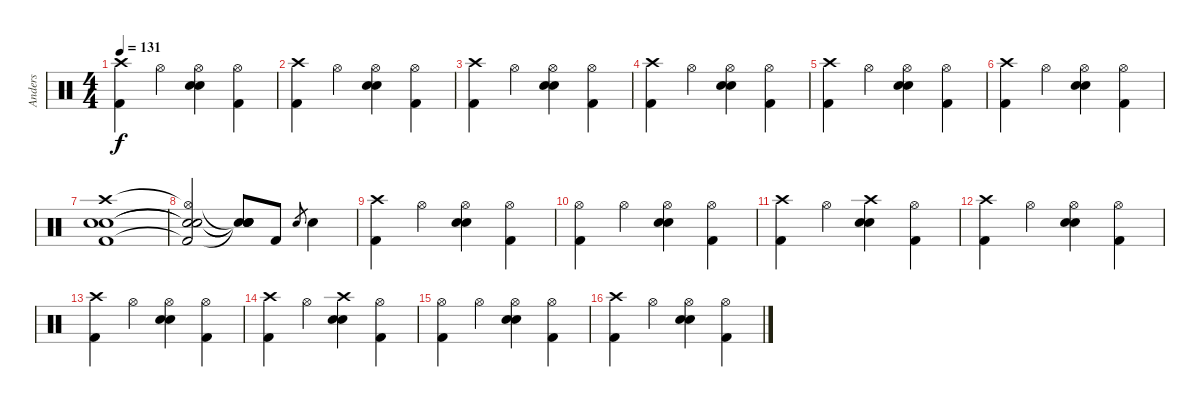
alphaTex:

\track ("Anders" "Anders") {instrument percussion}
\staff {score}
\articulation defaults
\ts (4 4)
\tempo 131
\clef neutral
\ks c
("Crash high (hit)" "Kick (hit) 2").4{dy f} "Hi-Hat (open)".4 ("Hi-Hat (open)" "Electric Snare (hit)" "Electric Snare (hit)").4 ("Hi-Hat (open)" "Kick (hit) 2").4 |
("Crash high (hit)" "Kick (hit) 2").4 "Hi-Hat (open)".4 ("Hi-Hat (open)" "Electric Snare (hit)" "Electric Snare (hit)").4 ("Hi-Hat (open)" "Kick (hit) 2").4 |
("Crash high (hit)" "Kick (hit) 2").4 "Hi-Hat (open)".4 ("Hi-Hat (open)" "Electric Snare (hit)" "Electric Snare (hit)").4 ("Hi-Hat (open)" "Kick (hit) 2").4 |
("Crash high (hit)" "Kick (hit) 2").4 "Hi-Hat (open)".4 ("Hi-Hat (open)" "Electric Snare (hit)" "Electric Snare (hit)").4 ("Hi-Hat (open)" "Kick (hit) 2").4 |
("Crash high (hit)" "Kick (hit) 2").4 "Hi-Hat (open)".4 ("Hi-Hat (open)" "Electric Snare (hit)" "Electric Snare (hit)").4 ("Hi-Hat (open)" "Kick (hit) 2").4 |
("Crash high (hit)" "Kick (hit) 2").4 "Hi-Hat (open)".4 ("Hi-Hat (open)" "Electric Snare (hit)" "Electric Snare (hit)").4 ("Hi-Hat (open)" "Kick (hit) 2").4 |
("Crash high (hit)" "Electric Snare (hit)" "Electric Snare (hit)" "Kick (hit) 2").1 |
("Hi-Hat (open)"{t} "Snare (hit)"{t} "Snare (hit)"{t} "Kick (hit) 2"{t}).2 ("Snare (hit)"{t} "Snare (hit)"{t} "Snare (hit)"{t} "Snare (hit)"{t}).8 "Kick (hit) 2".8 "Electric Snare (hit)".8{gr} "Electric Snare (hit)".4 |
("Crash high (hit)" "Kick (hit) 2").4 "Hi-Hat (open)".4 ("Hi-Hat (open)" "Electric Snare (hit)" "Electric Snare (hit)").4 ("Hi-Hat (open)" "Kick (hit) 2").4 |
("Hi-Hat (open)" "Kick (hit) 2").4 "Hi-Hat (open)".4 ("Hi-Hat (open)" "Electric Snare (hit)" "Electric Snare (hit)").4 ("Hi-Hat (open)" "Kick (hit) 2").4 |
("Crash high (hit)" "Kick (hit) 2").4 "Hi-Hat (open)".4 ("Crash high (hit)" "Electric Snare (hit)" "Electric Snare (hit)").4 ("Hi-Hat (open)" "Kick (hit) 2").4 |
("Crash high (hit)" "Kick (hit) 2").4 "Hi-Hat (open)".4 ("Hi-Hat (open)" "Electric Snare (hit)" "Electric Snare (hit)").4 ("Hi-Hat (open)" "Kick (hit) 2").4 |
("Crash high (hit)" "Kick (hit) 2").4 "Hi-Hat (open)".4 ("Hi-Hat (open)" "Electric Snare (hit)" "Electric Snare (hit)").4 ("Hi-Hat (open)" "Kick (hit) 2").4 |
("Crash high (hit)" "Kick (hit) 2").4 "Hi-Hat (open)".4 ("Crash high (hit)" "Electric Snare (hit)" "Electric Snare (hit)").4 ("Hi-Hat (open)" "Kick (hit) 2").4 |
("Hi-Hat (open)" "Kick (hit) 2").4 "Hi-Hat (open)".4 ("Hi-Hat (open)" "Electric Snare (hit)" "Electric Snare (hit)").4 ("Hi-Hat (open)" "Kick (hit) 2").4 |
("Crash high (hit)" "Kick (hit) 2").4 "Hi-Hat (open)".4 ("Hi-Hat (open)" "Electric Snare (hit)" "Electric Snare (hit)").4 ("Hi-Hat (open)" "Kick (hit) 2").4
